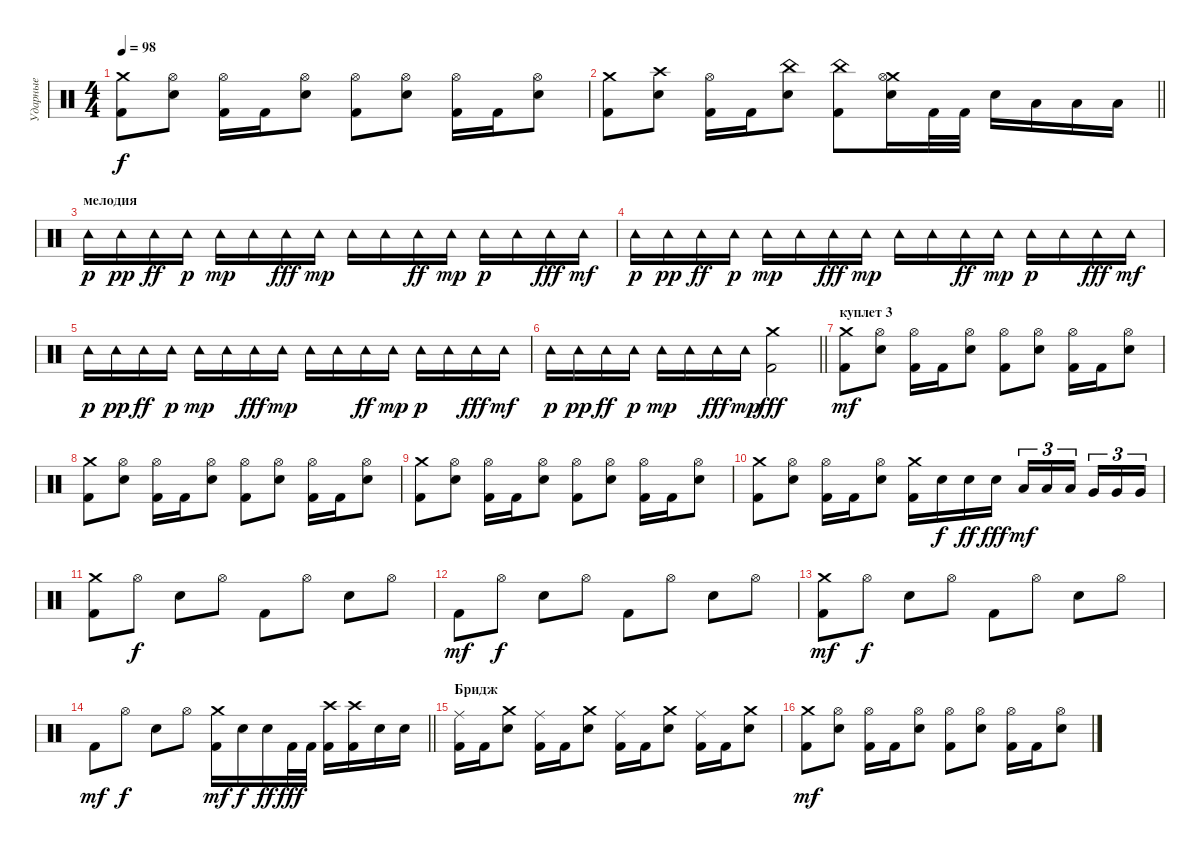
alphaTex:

\track ("Ударные" "Ударные") {instrument percussion}
\staff {score}
\articulation defaults
\ts (4 4)
\tempo 98
\clef neutral
\ks c
("Crash medium (hit)" "Kick (hit) 2").8{dy f} ("Hi-Hat (open)" "Snare (hit) 2").8 ("Hi-Hat (open)" "Kick (hit) 2").16 "Kick (hit) 2".16 ("Hi-Hat (open)" "Snare (hit) 2").8 ("Hi-Hat (open)" "Kick (hit) 2").8 ("Hi-Hat (open)" "Snare (hit) 2").8 ("Hi-Hat (open)" "Kick (hit) 2").16 "Kick (hit) 2".16 ("Hi-Hat (open)" "Snare (hit) 2").8 |
\barLineRight lightlight
("Crash medium (hit)" "Kick (hit) 2").8 ("Crash high (hit)" "Snare (hit) 2").8 ("Hi-Hat (open)" "Kick (hit) 2").16 "Kick (hit) 2".16 ("China (hit)" "Snare (hit) 2").8 ("China (hit)" "Kick (hit) 2").8 ("Crash medium (hit)" "Hi-Hat (open)" "Snare (hit) 2").16 "Kick (hit) 2".32 "Kick (hit) 2".32 "Snare (hit) 2".16 "Low Tom (hit)".16 "Low Tom (hit)".16 "Low Tom (hit)".16 |
\section ("" "мелодия")
"Tambourine (hit)".16{dy p} "Tambourine (hit)".16{dy pp} "Tambourine (hit)".16{dy ff} "Tambourine (hit)".16{dy p} "Tambourine (hit)".16{dy mp} "Tambourine (hit)".16 "Tambourine (hit)".16{dy fff} "Tambourine (hit)".16{dy mp} "Tambourine (hit)".16 "Tambourine (hit)".16 "Tambourine (hit)".16{dy ff} "Tambourine (hit)".16{dy mp} "Tambourine (hit)".16{dy p} "Tambourine (hit)".16 "Tambourine (hit)".16{dy fff} "Tambourine (hit)".16{dy mf} |
"Tambourine (hit)".16{dy p} "Tambourine (hit)".16{dy pp} "Tambourine (hit)".16{dy ff} "Tambourine (hit)".16{dy p} "Tambourine (hit)".16{dy mp} "Tambourine (hit)".16 "Tambourine (hit)".16{dy fff} "Tambourine (hit)".16{dy mp} "Tambourine (hit)".16 "Tambourine (hit)".16 "Tambourine (hit)".16{dy ff} "Tambourine (hit)".16{dy mp} "Tambourine (hit)".16{dy p} "Tambourine (hit)".16 "Tambourine (hit)".16{dy fff} "Tambourine (hit)".16{dy mf} |
"Tambourine (hit)".16{dy p} "Tambourine (hit)".16{dy pp} "Tambourine (hit)".16{dy ff} "Tambourine (hit)".16{dy p} "Tambourine (hit)".16{dy mp} "Tambourine (hit)".16 "Tambourine (hit)".16{dy fff} "Tambourine (hit)".16{dy mp} "Tambourine (hit)".16 "Tambourine (hit)".16 "Tambourine (hit)".16{dy ff} "Tambourine (hit)".16{dy mp} "Tambourine (hit)".16{dy p} "Tambourine (hit)".16 "Tambourine (hit)".16{dy fff} "Tambourine (hit)".16{dy mf} |
\barLineRight lightlight "Tambourine (hit)".16{dy p} "Tambourine (hit)".16{dy pp} "Tambourine (hit)".16{dy ff} "Tambourine (hit)".16{dy p} "Tambourine (hit)".16{dy mp} "Tambourine (hit)".16 "Tambourine (hit)".16{dy fff} "Tambourine (hit)".16{dy mp}
("Kick (hit) 2" "Crash medium (hit)").2{dy fff} |
\section ("" "куплет 3")
("Crash medium (hit)" "Kick (hit) 2").8{dy mf} ("Hi-Hat (open)" "Snare (hit) 2").8 ("Hi-Hat (open)" "Kick (hit) 2").16 "Kick (hit) 2".16 ("Hi-Hat (open)" "Snare (hit) 2").8 ("Hi-Hat (open)" "Kick (hit) 2").8 ("Hi-Hat (open)" "Snare (hit) 2").8 ("Hi-Hat (open)" "Kick (hit) 2").16 "Kick (hit) 2".16 ("Hi-Hat (open)" "Snare (hit) 2").8 |
("Crash medium (hit)" "Kick (hit) 2").8 ("Hi-Hat (open)" "Snare (hit) 2").8 ("Hi-Hat (open)" "Kick (hit) 2").16 "Kick (hit) 2".16 ("Hi-Hat (open)" "Snare (hit) 2").8 ("Hi-Hat (open)" "Kick (hit) 2").8 ("Hi-Hat (open)" "Snare (hit) 2").8 ("Hi-Hat (open)" "Kick (hit) 2").16 "Kick (hit) 2".16 ("Hi-Hat (open)" "Snare (hit) 2").8 |
("Crash medium (hit)" "Kick (hit) 2").8 ("Hi-Hat (open)" "Snare (hit) 2").8 ("Hi-Hat (open)" "Kick (hit) 2").16 "Kick (hit) 2".16 ("Hi-Hat (open)" "Snare (hit) 2").8 ("Hi-Hat (open)" "Kick (hit) 2").8 ("Hi-Hat (open)" "Snare (hit) 2").8 ("Hi-Hat (open)" "Kick (hit) 2").16 "Kick (hit) 2".16 ("Hi-Hat (open)" "Snare (hit) 2").8 |
("Crash medium (hit)" "Kick (hit) 2").8 ("Hi-Hat (open)" "Snare (hit) 2").8 ("Hi-Hat (open)" "Kick (hit) 2").16 "Kick (hit) 2".16 ("Hi-Hat (open)" "Snare (hit) 2").8 ("Crash medium (hit)" "Kick (hit) 2").16 "Snare (hit) 2".16{dy f} "Snare (hit) 2".16{dy ff} "Snare (hit) 2".16{dy fff} "Low Tom (hit)".16{tu (3 2) dy mf} "Low Tom (hit)".16{tu (3 2)} "Low Tom (hit)".16{tu (3 2) beam splitsecondary} "Very Low Tom (hit)".16{tu (3 2)} "Very Low Tom (hit)".16{tu (3 2)} "Very Low Tom (hit)".16{tu (3 2)} |
("Crash medium (hit)" "Kick (hit) 2").8 "Hi-Hat (open)".8{dy f} "Snare (hit) 2".8 "Hi-Hat (open)".8 "Kick (hit) 2".8 "Hi-Hat (open)".8 "Snare (hit) 2".8 "Hi-Hat (open)".8 |
"Kick (hit) 2".8{dy mf} "Hi-Hat (open)".8{dy f} "Snare (hit) 2".8 "Hi-Hat (open)".8 "Kick (hit) 2".8 "Hi-Hat (open)".8 "Snare (hit) 2".8 "Hi-Hat (open)".8 |
("Crash medium (hit)" "Kick (hit) 2").8{dy mf} "Hi-Hat (open)".8{dy f} "Snare (hit) 2".8 "Hi-Hat (open)".8 "Kick (hit) 2".8 "Hi-Hat (open)".8 "Snare (hit) 2".8 "Hi-Hat (open)".8 |
\barLineRight lightlight "Kick (hit) 2".8{dy mf} "Hi-Hat (open)".8{dy f} "Snare (hit) 2".8 "Hi-Hat (open)".8
("Crash medium (hit)" "Kick (hit) 2").16{dy mf} "Snare (hit) 2".16{dy f} "Snare (hit) 2".16{dy ff} "Kick (hit) 2".32{dy fff} "Kick (hit) 2".32 ("Crash high (hit)" "Kick (hit) 2").16 ("Crash high (hit)" "Kick (hit) 2").16 "Snare (hit) 2".16 "Snare (hit) 2".16 |
\section ("" "Бридж")
("Ride (middle)" "Kick (hit) 2").16 "Kick (hit) 2".16 ("Crash medium (hit)" "Snare (hit) 2").8 ("Ride (middle)" "Kick (hit) 2").16 "Kick (hit) 2".16 ("Crash medium (hit)" "Snare (hit) 2").8 ("Ride (middle)" "Kick (hit) 2").16 "Kick (hit) 2".16 ("Crash medium (hit)" "Snare (hit) 2").8 ("Ride (middle)" "Kick (hit) 2").16 "Kick (hit) 2".16 ("Crash medium (hit)" "Snare (hit) 2").8 |
("Crash medium (hit)" "Kick (hit) 2").8{dy mf} ("Hi-Hat (open)" "Snare (hit) 2").8 ("Hi-Hat (open)" "Kick (hit) 2").16 "Kick (hit) 2".16 ("Hi-Hat (open)" "Snare (hit) 2").8 ("Hi-Hat (open)" "Kick (hit) 2").8 ("Hi-Hat (open)" "Snare (hit) 2").8 ("Hi-Hat (open)" "Kick (hit) 2").16 "Kick (hit) 2".16 ("Hi-Hat (open)" "Snare (hit) 2").8
